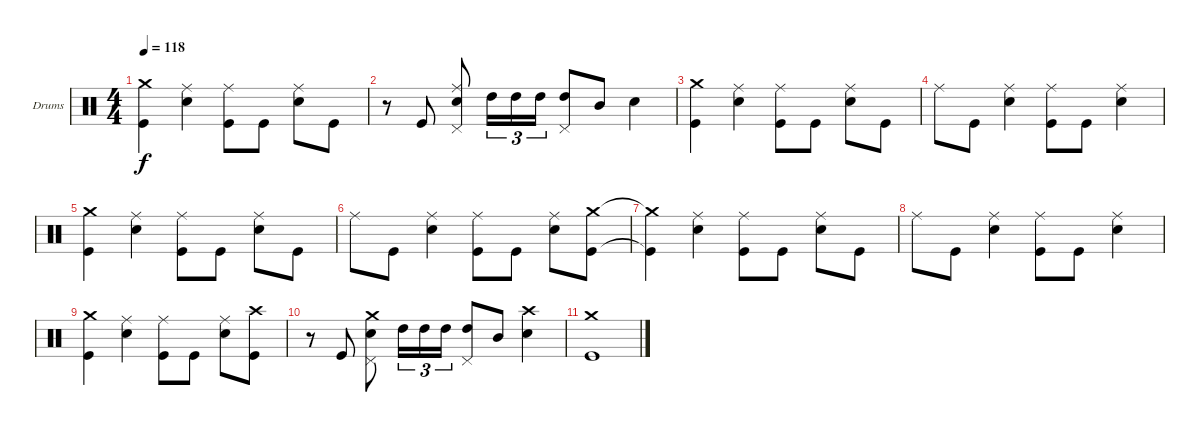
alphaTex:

\bracketExtendMode groupsimilarinstruments
\firstSystemTrackNameOrientation horizontal
\otherSystemsTrackNameOrientation horizontal
\track ("Drumkit" "Drums") {instrument percussion}
\staff {score}
\articulation defaults
\ts (4 4)
\tempo 118
\clef neutral
\ks c
("Crash medium (hit)" "Kick (hit)").4{dy f} ("Ride (middle)" "Snare (hit) 2").4 ("Ride (middle)" "Kick (hit)").8 "Kick (hit)".8 ("Ride (middle)" "Snare (hit) 2").8 "Kick (hit)".8 |
r.8 "Kick (hit)".8 ("Ride (middle)" "Snare (hit) 2" "Pedal Hi-Hat (hit)").8 "High Tom (hit)".16{tu (3 2)} "High Tom (hit)".16{tu (3 2)} "High Tom (hit)".16{tu (3 2)} ("High Tom (hit)" "Pedal Hi-Hat (hit)").8 "Mid Tom (hit)".8 "Snare (hit) 2".4 |
("Crash medium (hit)" "Kick (hit)").4 ("Ride (middle)" "Snare (hit) 2").4 ("Ride (middle)" "Kick (hit)").8 "Kick (hit)".8 ("Ride (middle)" "Snare (hit) 2").8 "Kick (hit)".8 |
"Ride (middle)".8 "Kick (hit)".8 ("Ride (middle)" "Snare (hit) 2").4 ("Ride (middle)" "Kick (hit)").8 "Kick (hit)".8 ("Ride (middle)" "Snare (hit) 2").4 |
("Crash medium (hit)" "Kick (hit)").4 ("Ride (middle)" "Snare (hit) 2").4 ("Ride (middle)" "Kick (hit)").8 "Kick (hit)".8 ("Ride (middle)" "Snare (hit) 2").8 "Kick (hit)".8 |
"Ride (middle)".8 "Kick (hit)".8 ("Ride (middle)" "Snare (hit) 2").4 ("Ride (middle)" "Kick (hit)").8 "Kick (hit)".8 ("Ride (middle)" "Snare (hit) 2").8 ("Crash medium (hit)" "Kick (hit)").8 |
("Crash medium (hit)"{t} "Kick (hit)"{t}).4 ("Ride (middle)" "Snare (hit) 2").4 ("Ride (middle)" "Kick (hit)").8 "Kick (hit)".8 ("Ride (middle)" "Snare (hit) 2").8 "Kick (hit)".8 |
"Ride (middle)".8 "Kick (hit)".8 ("Ride (middle)" "Snare (hit) 2").4 ("Ride (middle)" "Kick (hit)").8 "Kick (hit)".8 ("Ride (middle)" "Snare (hit) 2").4 |
("Crash medium (hit)" "Kick (hit)").4 ("Ride (middle)" "Snare (hit) 2").4 ("Ride (middle)" "Kick (hit)").8 "Kick (hit)".8 ("Ride (middle)" "Snare (hit) 2").8 ("Crash high (hit)" "Kick (hit)").8 |
r.8 "Kick (hit)".8 ("Crash medium (hit)" "Snare (hit) 2" "Pedal Hi-Hat (hit)").8 "High Tom (hit)".16{tu (3 2)} "High Tom (hit)".16{tu (3 2)} "High Tom (hit)".16{tu (3 2)} ("High Tom (hit)" "Pedal Hi-Hat (hit)").8 "Mid Tom (hit)".8 ("Crash high (hit)" "Snare (hit) 2").4 |
("Crash medium (hit)" "Kick (hit)").1
